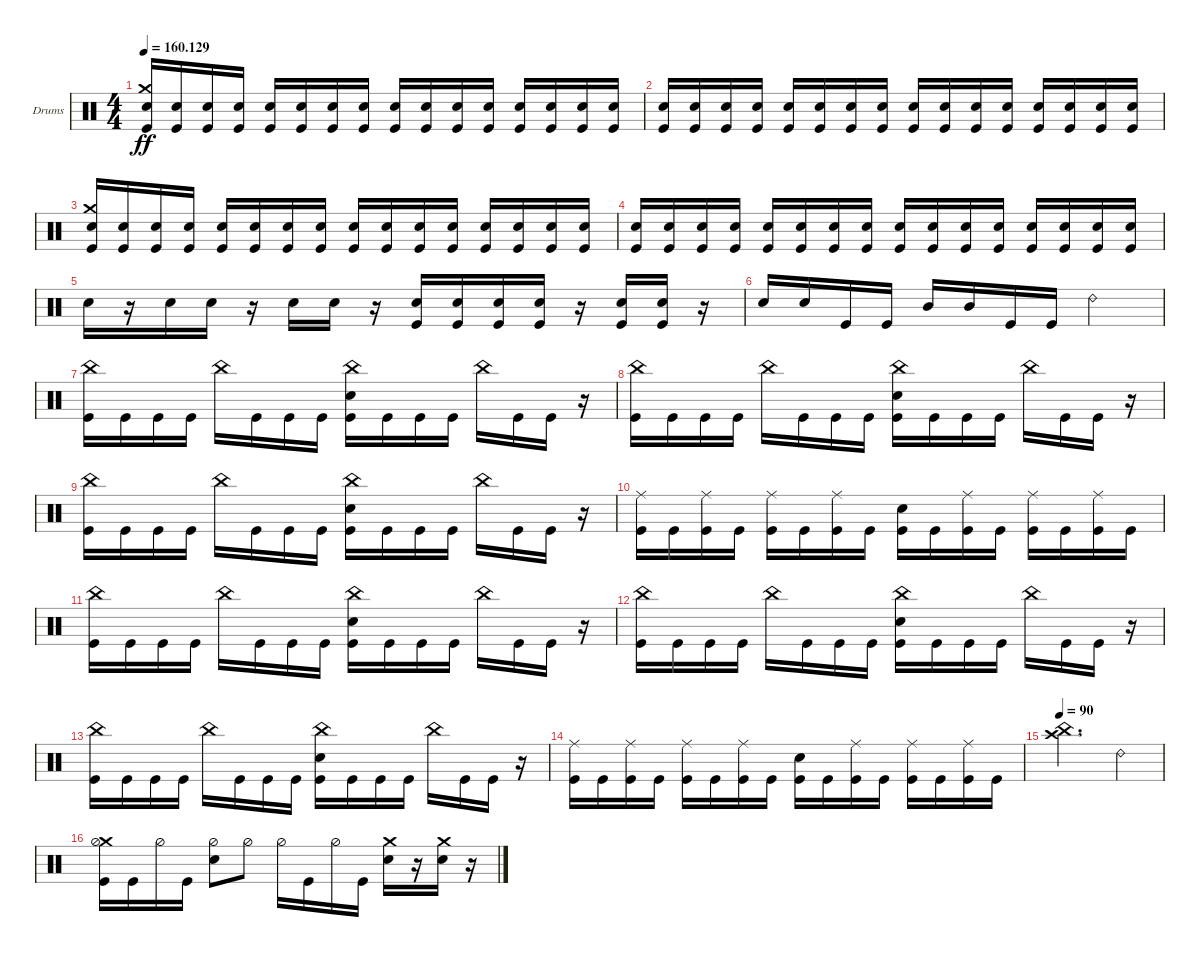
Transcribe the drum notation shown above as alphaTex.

\bracketExtendMode groupsimilarinstruments
\firstSystemTrackNameOrientation horizontal
\otherSystemsTrackNameOrientation horizontal
\track ("Drumkit" "Drums") {instrument percussion}
\staff {score}
\articulation defaults
\ts (4 4)
\tempo
160.129
\accidentals auto
\clef neutral
\ottava regular
\simile none
\ks c
("Kick (hit)" "Crash medium (hit)" "Snare (hit) 2").16{dy ff} ("Kick (hit)" "Snare (hit) 2").16 ("Kick (hit)" "Snare (hit) 2").16 ("Kick (hit)" "Snare (hit) 2").16 ("Kick (hit)" "Snare (hit) 2").16 ("Kick (hit)" "Snare (hit) 2").16 ("Kick (hit)" "Snare (hit) 2").16 ("Kick (hit)" "Snare (hit) 2").16 ("Kick (hit)" "Snare (hit) 2").16 ("Kick (hit)" "Snare (hit) 2").16 ("Kick (hit)" "Snare (hit) 2").16 ("Kick (hit)" "Snare (hit) 2").16 ("Kick (hit)" "Snare (hit) 2").16 ("Kick (hit)" "Snare (hit) 2").16 ("Kick (hit)" "Snare (hit) 2").16 ("Kick (hit)" "Snare (hit) 2").16 |
("Kick (hit)" "Snare (hit) 2").16 ("Kick (hit)" "Snare (hit) 2").16 ("Kick (hit)" "Snare (hit) 2").16 ("Kick (hit)" "Snare (hit) 2").16 ("Kick (hit)" "Snare (hit) 2").16 ("Kick (hit)" "Snare (hit) 2").16 ("Kick (hit)" "Snare (hit) 2").16 ("Kick (hit)" "Snare (hit) 2").16 ("Kick (hit)" "Snare (hit) 2").16 ("Kick (hit)" "Snare (hit) 2").16 ("Kick (hit)" "Snare (hit) 2").16 ("Kick (hit)" "Snare (hit) 2").16 ("Kick (hit)" "Snare (hit) 2").16 ("Kick (hit)" "Snare (hit) 2").16 ("Kick (hit)" "Snare (hit) 2").16 ("Kick (hit)" "Snare (hit) 2").16 |
("Kick (hit)" "Crash medium (hit)" "Snare (hit) 2").16 ("Kick (hit)" "Snare (hit) 2").16 ("Kick (hit)" "Snare (hit) 2").16 ("Kick (hit)" "Snare (hit) 2").16 ("Kick (hit)" "Snare (hit) 2").16 ("Kick (hit)" "Snare (hit) 2").16 ("Kick (hit)" "Snare (hit) 2").16 ("Kick (hit)" "Snare (hit) 2").16 ("Kick (hit)" "Snare (hit) 2").16 ("Kick (hit)" "Snare (hit) 2").16 ("Kick (hit)" "Snare (hit) 2").16 ("Kick (hit)" "Snare (hit) 2").16 ("Kick (hit)" "Snare (hit) 2").16 ("Kick (hit)" "Snare (hit) 2").16 ("Kick (hit)" "Snare (hit) 2").16 ("Kick (hit)" "Snare (hit) 2").16 |
("Kick (hit)" "Snare (hit) 2").16 ("Kick (hit)" "Snare (hit) 2").16 ("Kick (hit)" "Snare (hit) 2").16 ("Kick (hit)" "Snare (hit) 2").16 ("Kick (hit)" "Snare (hit) 2").16 ("Kick (hit)" "Snare (hit) 2").16 ("Kick (hit)" "Snare (hit) 2").16 ("Kick (hit)" "Snare (hit) 2").16 ("Kick (hit)" "Snare (hit) 2").16 ("Kick (hit)" "Snare (hit) 2").16 ("Kick (hit)" "Snare (hit) 2").16 ("Kick (hit)" "Snare (hit) 2").16 ("Kick (hit)" "Snare (hit) 2").16 ("Kick (hit)" "Snare (hit) 2").16 ("Kick (hit)" "Snare (hit) 2").16 ("Kick (hit)" "Snare (hit) 2").16 |
"Snare (hit) 2".16 r.16 "Snare (hit) 2".16 "Snare (hit) 2".16 r.16 "Snare (hit) 2".16 "Snare (hit) 2".16 r.16 ("Snare (hit) 2" "Kick (hit)").16 ("Snare (hit) 2" "Kick (hit)").16 ("Snare (hit) 2" "Kick (hit)").16 ("Snare (hit) 2" "Kick (hit)").16 r.16 ("Snare (hit) 2" "Kick (hit)").16 ("Snare (hit) 2" "Kick (hit)").16 r.16 |
"Snare (hit) 2".16 "Snare (hit) 2".16 "Kick (hit)".16 "Kick (hit)".16 "Mid Tom (hit)".16 "Mid Tom (hit)".16 "Kick (hit)".16 "Kick (hit)".16 "Ride (bell) 2".2 |
("Kick (hit)" "China (hit)").16 "Kick (hit)".16 "Kick (hit)".16 "Kick (hit)".16 "China (hit)".16 "Kick (hit)".16 "Kick (hit)".16 "Kick (hit)".16 ("Kick (hit)" "China (hit)" "Snare (hit) 2").16 "Kick (hit)".16 "Kick (hit)".16 "Kick (hit)".16 "China (hit)".16 "Kick (hit)".16 "Kick (hit)".16 r.16 |
("Kick (hit)" "China (hit)").16 "Kick (hit)".16 "Kick (hit)".16 "Kick (hit)".16 "China (hit)".16 "Kick (hit)".16 "Kick (hit)".16 "Kick (hit)".16 ("Kick (hit)" "China (hit)" "Snare (hit) 2").16 "Kick (hit)".16 "Kick (hit)".16 "Kick (hit)".16 "China (hit)".16 "Kick (hit)".16 "Kick (hit)".16 r.16 |
("Kick (hit)" "China (hit)").16 "Kick (hit)".16 "Kick (hit)".16 "Kick (hit)".16 "China (hit)".16 "Kick (hit)".16 "Kick (hit)".16 "Kick (hit)".16 ("Kick (hit)" "China (hit)" "Snare (hit) 2").16 "Kick (hit)".16 "Kick (hit)".16 "Kick (hit)".16 "China (hit)".16 "Kick (hit)".16 "Kick (hit)".16 r.16 |
("Kick (hit)" "Ride (middle)").16 "Kick (hit)".16 ("Kick (hit)" "Ride (middle)").16 "Kick (hit)".16 ("Kick (hit)" "Ride (middle)").16 "Kick (hit)".16 ("Kick (hit)" "Ride (middle)").16 "Kick (hit)".16 ("Kick (hit)" "Snare (hit) 2").16 "Kick (hit)".16 ("Kick (hit)" "Ride (middle)").16 "Kick (hit)".16 ("Kick (hit)" "Ride (middle)").16 "Kick (hit)".16 ("Kick (hit)" "Ride (middle)").16 "Kick (hit)".16 |
("Kick (hit)" "China (hit)").16 "Kick (hit)".16 "Kick (hit)".16 "Kick (hit)".16 "China (hit)".16 "Kick (hit)".16 "Kick (hit)".16 "Kick (hit)".16 ("Kick (hit)" "China (hit)" "Snare (hit) 2").16 "Kick (hit)".16 "Kick (hit)".16 "Kick (hit)".16 "China (hit)".16 "Kick (hit)".16 "Kick (hit)".16 r.16 |
("Kick (hit)" "China (hit)").16 "Kick (hit)".16 "Kick (hit)".16 "Kick (hit)".16 "China (hit)".16 "Kick (hit)".16 "Kick (hit)".16 "Kick (hit)".16 ("Kick (hit)" "China (hit)" "Snare (hit) 2").16 "Kick (hit)".16 "Kick (hit)".16 "Kick (hit)".16 "China (hit)".16 "Kick (hit)".16 "Kick (hit)".16 r.16 |
("Kick (hit)" "China (hit)").16 "Kick (hit)".16 "Kick (hit)".16 "Kick (hit)".16 "China (hit)".16 "Kick (hit)".16 "Kick (hit)".16 "Kick (hit)".16 ("Kick (hit)" "China (hit)" "Snare (hit) 2").16 "Kick (hit)".16 "Kick (hit)".16 "Kick (hit)".16 "China (hit)".16 "Kick (hit)".16 "Kick (hit)".16 r.16 |
("Kick (hit)" "Ride (middle)").16 "Kick (hit)".16 ("Kick (hit)" "Ride (middle)").16 "Kick (hit)".16 ("Kick (hit)" "Ride (middle)").16 "Kick (hit)".16 ("Kick (hit)" "Ride (middle)").16 "Kick (hit)".16 ("Kick (hit)" "Snare (hit) 2").16 "Kick (hit)".16 ("Kick (hit)" "Ride (middle)").16 "Kick (hit)".16 ("Kick (hit)" "Ride (middle)").16 "Kick (hit)".16 ("Kick (hit)" "Ride (middle)").16 "Kick (hit)".16 |
\tempo 90
("China (hit)" "Crash high (hit)").2{d} "Ride (bell) 2".4 |
("Kick (hit)" "Crash medium (hit)" "Hi-Hat (half)").16 "Kick (hit)".16 "Hi-Hat (half)".16 "Kick (hit)".16 ("Snare (hit) 2" "Hi-Hat (half)").8 "Hi-Hat (half)".8 "Hi-Hat (half)".16 "Kick (hit)".16 "Hi-Hat (half)".16 "Kick (hit)".16 ("Snare (hit) 2" "Crash medium (hit)").16 r.16 ("Snare (hit) 2" "Crash medium (hit)").16 r.16
